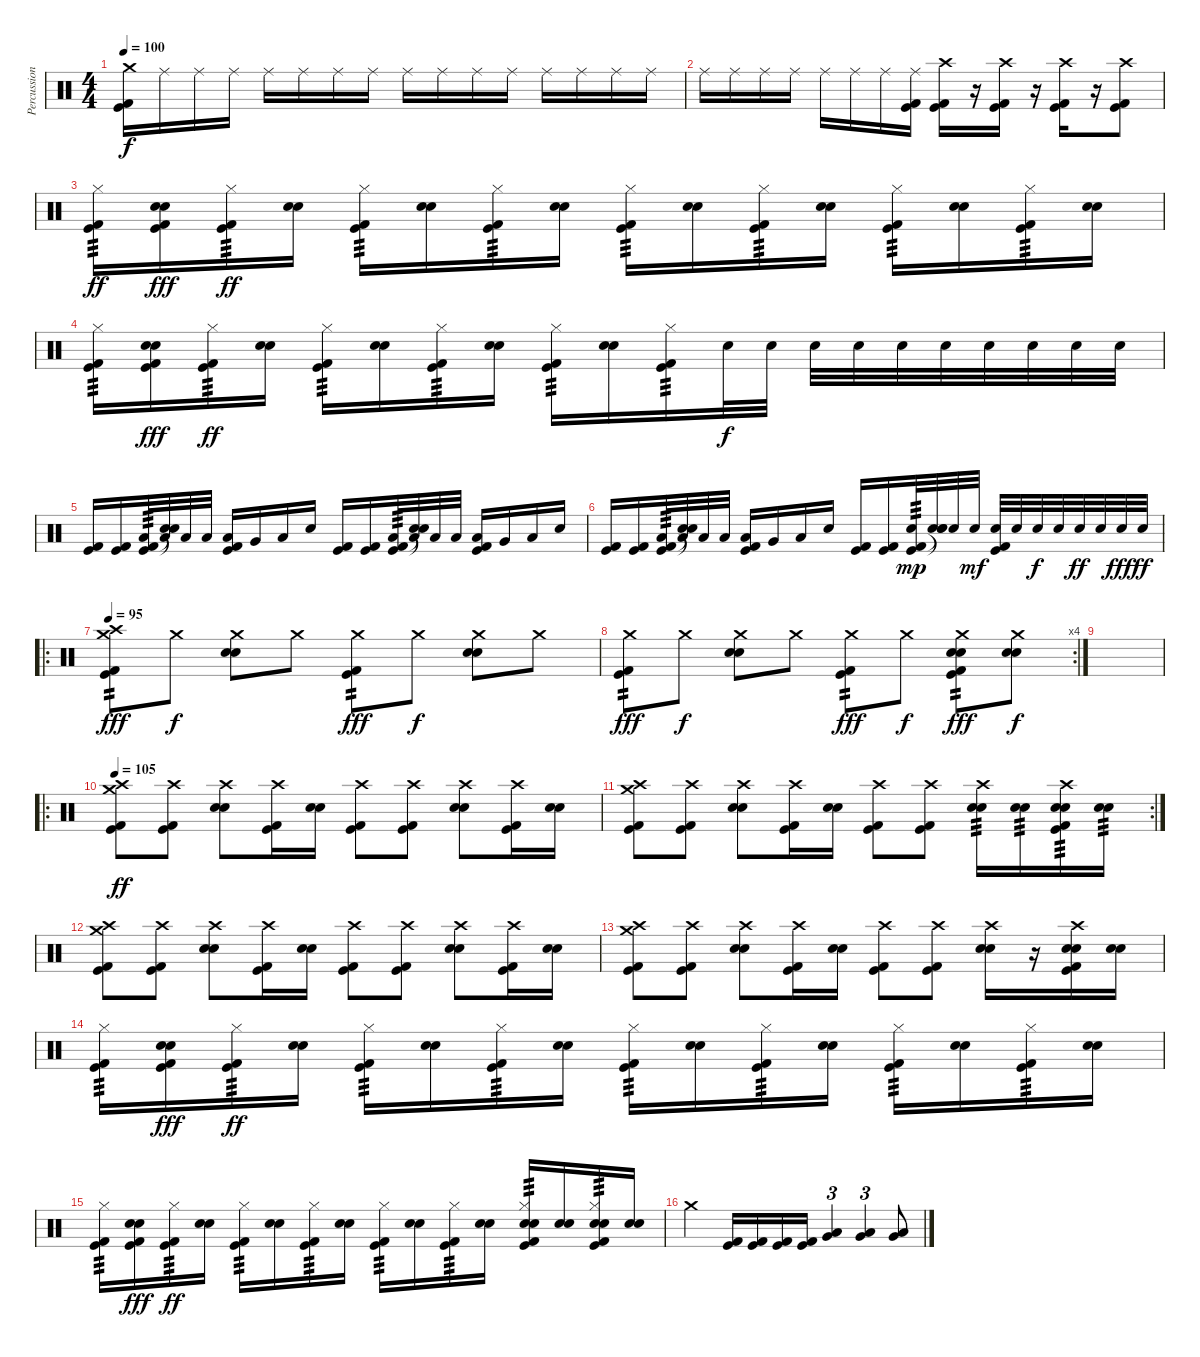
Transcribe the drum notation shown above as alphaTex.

\track ("Percussion" "Percussion") {instrument percussion}
\staff {score}
\articulation defaults
\ts (4 4)
\tempo 100
\clef neutral
\ks c
("Crash medium (hit)" "Kick (hit)" "Kick (hit) 2").16{dy f} "Ride (middle)".16 "Ride (middle)".16 "Ride (middle)".16 "Ride (middle)".16 "Ride (middle)".16 "Ride (middle)".16 "Ride (middle)".16 "Ride (middle)".16 "Ride (middle)".16 "Ride (middle)".16 "Ride (middle)".16 "Ride (middle)".16 "Ride (middle)".16 "Ride (middle)".16 "Ride (middle)".16 |
"Ride (middle)".16 "Ride (middle)".16 "Ride (middle)".16 "Ride (middle)".16 "Ride (middle)".16 "Ride (middle)".16 "Ride (middle)".16 ("Ride (middle)" "Kick (hit)" "Kick (hit) 2").16 ("Crash high (hit)" "Kick (hit)" "Kick (hit) 2").16 r.16 ("Crash high (hit)" "Kick (hit)" "Kick (hit) 2").16 r.16 ("Crash high (hit)" "Kick (hit)" "Kick (hit) 2").16 r.16 ("Crash high (hit)" "Kick (hit)" "Kick (hit) 2").8 |
("Hi-Hat (closed)" "Kick (hit)" "Kick (hit) 2").16{tp 3 dy ff} ("Snare (hit) 2" "Electric Snare (hit)" "Kick (hit)" "Kick (hit) 2").16{dy fff} ("Hi-Hat (closed)" "Kick (hit)" "Kick (hit) 2").16{tp 3 dy ff} ("Snare (hit) 2" "Electric Snare (hit)").16 ("Hi-Hat (closed)" "Kick (hit)" "Kick (hit) 2").16{tp 3} ("Snare (hit) 2" "Electric Snare (hit)").16 ("Hi-Hat (closed)" "Kick (hit)" "Kick (hit) 2").16{tp 3} ("Snare (hit) 2" "Electric Snare (hit)").16 ("Hi-Hat (closed)" "Kick (hit)" "Kick (hit) 2").16{tp 3} ("Snare (hit) 2" "Electric Snare (hit)").16 ("Hi-Hat (closed)" "Kick (hit)" "Kick (hit) 2").16{tp 3} ("Snare (hit) 2" "Electric Snare (hit)").16 ("Hi-Hat (closed)" "Kick (hit)" "Kick (hit) 2").16{tp 3} ("Snare (hit) 2" "Electric Snare (hit)").16 ("Hi-Hat (closed)" "Kick (hit)" "Kick (hit) 2").16{tp 3} ("Snare (hit) 2" "Electric Snare (hit)").16 |
("Hi-Hat (closed)" "Kick (hit)" "Kick (hit) 2").16{tp 3} ("Snare (hit) 2" "Electric Snare (hit)" "Kick (hit)" "Kick (hit) 2").16{dy fff} ("Hi-Hat (closed)" "Kick (hit)" "Kick (hit) 2").16{tp 3 dy ff} ("Snare (hit) 2" "Electric Snare (hit)").16 ("Hi-Hat (closed)" "Kick (hit)" "Kick (hit) 2").16{tp 3} ("Snare (hit) 2" "Electric Snare (hit)").16 ("Hi-Hat (closed)" "Kick (hit)" "Kick (hit) 2").16{tp 3} ("Snare (hit) 2" "Electric Snare (hit)").16 ("Hi-Hat (closed)" "Kick (hit)" "Kick (hit) 2").16{tp 3} ("Snare (hit) 2" "Electric Snare (hit)").16 ("Hi-Hat (closed)" "Kick (hit)" "Kick (hit) 2").16{tp 3} "Electric Snare (hit)".32{dy f} "Electric Snare (hit)".32 "Electric Snare (hit)".32 "Electric Snare (hit)".32 "Electric Snare (hit)".32 "Electric Snare (hit)".32 "Electric Snare (hit)".32 "Electric Snare (hit)".32 "Electric Snare (hit)".32 "Electric Snare (hit)".32 |
("Kick (hit)" "Kick (hit) 2").16 ("Kick (hit)" "Kick (hit) 2").16 ("Low Tom (hit)" "Kick (hit)" "Kick (hit) 2").32{tp 3} ("Low Tom (hit)" "Snare (hit)"{t} "Snare (hit)"{t}).32 "Low Tom (hit)".32 "Low Tom (hit)".32 ("Low Tom (hit)" "Kick (hit)" "Kick (hit) 2").16 "Very Low Tom (hit)".16 "Low Floor Tom (hit)".16 "Electric Snare (hit)".16 ("Kick (hit)" "Kick (hit) 2").16 ("Kick (hit)" "Kick (hit) 2").16 ("Low Tom (hit)" "Kick (hit)" "Kick (hit) 2").32{tp 3} ("Low Tom (hit)" "Snare (hit)"{t} "Snare (hit)"{t}).32 "Low Tom (hit)".32 "Low Tom (hit)".32 ("Low Tom (hit)" "Kick (hit)" "Kick (hit) 2").16 "Very Low Tom (hit)".16 "Low Floor Tom (hit)".16 "Electric Snare (hit)".16 |
("Kick (hit)" "Kick (hit) 2").16 ("Kick (hit)" "Kick (hit) 2").16 ("Low Tom (hit)" "Kick (hit)" "Kick (hit) 2").32{tp 3} ("Low Tom (hit)" "Snare (hit)"{t} "Snare (hit)"{t}).32 "Low Tom (hit)".32 "Low Tom (hit)".32 ("Low Tom (hit)" "Kick (hit)" "Kick (hit) 2").16 "Very Low Tom (hit)".16 "Low Floor Tom (hit)".16 "Electric Snare (hit)".16 ("Kick (hit)" "Kick (hit) 2").16 ("Kick (hit)" "Kick (hit) 2").16 ("Electric Snare (hit)" "Kick (hit)" "Kick (hit) 2").32{tp 3 dy mp} ("Electric Snare (hit)" "Snare (hit)"{t} "Snare (hit)"{t}).32 "Electric Snare (hit)".32 "Electric Snare (hit)".32{dy mf} ("Electric Snare (hit)" "Kick (hit)" "Kick (hit) 2").32 "Electric Snare (hit)".32 "Electric Snare (hit)".32{dy f} "Electric Snare (hit)".32 "Electric Snare (hit)".32{dy ff} "Electric Snare (hit)".32 "Electric Snare (hit)".32{dy fff} "Electric Snare (hit)".32{dy ff} |
\ro
\tempo 95
("Crash high (hit)" "Crash medium (hit)" "Kick (hit)" "Kick (hit) 2").8{tp 2 dy fff} "Crash medium (hit)".8{dy f} ("Crash medium (hit)" "Snare (hit) 2" "Electric Snare (hit)").8 "Crash medium (hit)".8 ("Crash medium (hit)" "Kick (hit)" "Kick (hit) 2").8{tp 2 dy fff} "Crash medium (hit)".8{dy f} ("Crash medium (hit)" "Snare (hit) 2" "Electric Snare (hit)").8 "Crash medium (hit)".8 |
\rc 4
("Crash medium (hit)" "Kick (hit)" "Kick (hit) 2").8{tp 2 dy fff} "Crash medium (hit)".8{dy f} ("Crash medium (hit)" "Snare (hit) 2" "Electric Snare (hit)").8 "Crash medium (hit)".8 ("Crash medium (hit)" "Kick (hit)" "Kick (hit) 2").8{tp 2 dy fff} "Crash medium (hit)".8{dy f} ("Crash medium (hit)" "Snare (hit) 2" "Electric Snare (hit)" "Kick (hit)" "Kick (hit) 2").8{tp 2 dy fff} ("Crash medium (hit)" "Snare (hit) 2" "Electric Snare (hit)").8{dy f} |
|
\ro
\tempo 105
("Crash high (hit)" "Crash medium (hit)" "Kick (hit)" "Kick (hit) 2").8{dy ff} ("Crash high (hit)" "Kick (hit)" "Kick (hit) 2").8 ("Crash high (hit)" "Snare (hit) 2" "Electric Snare (hit)").8 ("Crash high (hit)" "Kick (hit)" "Kick (hit) 2").16 ("Snare (hit) 2" "Electric Snare (hit)").16 ("Crash high (hit)" "Kick (hit)" "Kick (hit) 2").8 ("Crash high (hit)" "Kick (hit)" "Kick (hit) 2").8 ("Crash high (hit)" "Snare (hit) 2" "Electric Snare (hit)").8 ("Crash high (hit)" "Kick (hit)" "Kick (hit) 2").16 ("Snare (hit) 2" "Electric Snare (hit)").16 |
\rc 2
("Crash high (hit)" "Crash medium (hit)" "Kick (hit)" "Kick (hit) 2").8 ("Crash high (hit)" "Kick (hit)" "Kick (hit) 2").8 ("Crash high (hit)" "Snare (hit) 2" "Electric Snare (hit)").8 ("Crash high (hit)" "Kick (hit)" "Kick (hit) 2").16 ("Snare (hit) 2" "Electric Snare (hit)").16 ("Crash high (hit)" "Kick (hit)" "Kick (hit) 2").8 ("Crash high (hit)" "Kick (hit)" "Kick (hit) 2").8 ("Crash high (hit)" "Snare (hit) 2" "Electric Snare (hit)").16{tp 3} ("Snare (hit) 2" "Electric Snare (hit)").16{tp 3} ("Crash high (hit)" "Snare (hit) 2" "Electric Snare (hit)" "Kick (hit)" "Kick (hit) 2").16{tp 3} ("Snare (hit) 2" "Electric Snare (hit)").16{tp 3} |
("Crash high (hit)" "Crash medium (hit)" "Kick (hit)" "Kick (hit) 2").8 ("Crash high (hit)" "Kick (hit)" "Kick (hit) 2").8 ("Crash high (hit)" "Snare (hit) 2" "Electric Snare (hit)").8 ("Crash high (hit)" "Kick (hit)" "Kick (hit) 2").16 ("Snare (hit) 2" "Electric Snare (hit)").16 ("Crash high (hit)" "Kick (hit)" "Kick (hit) 2").8 ("Crash high (hit)" "Kick (hit)" "Kick (hit) 2").8 ("Crash high (hit)" "Snare (hit) 2" "Electric Snare (hit)").8 ("Crash high (hit)" "Kick (hit)" "Kick (hit) 2").16 ("Snare (hit) 2" "Electric Snare (hit)").16 |
("Crash high (hit)" "Crash medium (hit)" "Kick (hit)" "Kick (hit) 2").8 ("Crash high (hit)" "Kick (hit)" "Kick (hit) 2").8 ("Crash high (hit)" "Snare (hit) 2" "Electric Snare (hit)").8 ("Crash high (hit)" "Kick (hit)" "Kick (hit) 2").16 ("Snare (hit) 2" "Electric Snare (hit)").16 ("Crash high (hit)" "Kick (hit)" "Kick (hit) 2").8 ("Crash high (hit)" "Kick (hit)" "Kick (hit) 2").8 ("Crash high (hit)" "Snare (hit) 2" "Electric Snare (hit)").16 r.16 ("Crash high (hit)" "Snare (hit) 2" "Electric Snare (hit)" "Kick (hit)" "Kick (hit) 2").16 ("Snare (hit) 2" "Electric Snare (hit)").16 |
("Hi-Hat (closed)" "Kick (hit)" "Kick (hit) 2").16{tp 3} ("Snare (hit) 2" "Electric Snare (hit)" "Kick (hit)" "Kick (hit) 2").16{dy fff} ("Hi-Hat (closed)" "Kick (hit)" "Kick (hit) 2").16{tp 3 dy ff} ("Snare (hit) 2" "Electric Snare (hit)").16 ("Hi-Hat (closed)" "Kick (hit)" "Kick (hit) 2").16{tp 3} ("Snare (hit) 2" "Electric Snare (hit)").16 ("Hi-Hat (closed)" "Kick (hit)" "Kick (hit) 2").16{tp 3} ("Snare (hit) 2" "Electric Snare (hit)").16 ("Hi-Hat (closed)" "Kick (hit)" "Kick (hit) 2").16{tp 3} ("Snare (hit) 2" "Electric Snare (hit)").16 ("Hi-Hat (closed)" "Kick (hit)" "Kick (hit) 2").16{tp 3} ("Snare (hit) 2" "Electric Snare (hit)").16 ("Hi-Hat (closed)" "Kick (hit)" "Kick (hit) 2").16{tp 3} ("Snare (hit) 2" "Electric Snare (hit)").16 ("Hi-Hat (closed)" "Kick (hit)" "Kick (hit) 2").16{tp 3} ("Snare (hit) 2" "Electric Snare (hit)").16 |
("Hi-Hat (closed)" "Kick (hit)" "Kick (hit) 2").16{tp 3} ("Snare (hit) 2" "Electric Snare (hit)" "Kick (hit)" "Kick (hit) 2").16{dy fff} ("Hi-Hat (closed)" "Kick (hit)" "Kick (hit) 2").16{tp 3 dy ff} ("Snare (hit) 2" "Electric Snare (hit)").16 ("Hi-Hat (closed)" "Kick (hit)" "Kick (hit) 2").16{tp 3} ("Snare (hit) 2" "Electric Snare (hit)").16 ("Hi-Hat (closed)" "Kick (hit)" "Kick (hit) 2").16{tp 3} ("Snare (hit) 2" "Electric Snare (hit)").16 ("Hi-Hat (closed)" "Kick (hit)" "Kick (hit) 2").16{tp 3} ("Snare (hit) 2" "Electric Snare (hit)").16 ("Hi-Hat (closed)" "Kick (hit)" "Kick (hit) 2").16{tp 3} ("Snare (hit) 2" "Electric Snare (hit)").16 ("Hi-Hat (closed)" "Snare (hit) 2" "Electric Snare (hit)" "Kick (hit)" "Kick (hit) 2").16{tp 3} ("Snare (hit) 2" "Electric Snare (hit)").16 ("Hi-Hat (closed)" "Snare (hit) 2" "Electric Snare (hit)" "Kick (hit)" "Kick (hit) 2").16{tp 3} ("Snare (hit) 2" "Electric Snare (hit)").16 |
"Crash medium (hit)".4 ("Kick (hit)" "Kick (hit) 2").16 ("Kick (hit)" "Kick (hit) 2").16 ("Kick (hit)" "Kick (hit) 2").16 ("Kick (hit)" "Kick (hit) 2").16 ("Low Floor Tom (hit)" "Very Low Tom (hit)").4{tu (3 2)} ("Low Floor Tom (hit)" "Very Low Tom (hit)").4{tu (3 2)} ("Low Floor Tom (hit)" "Very Low Tom (hit)").8
